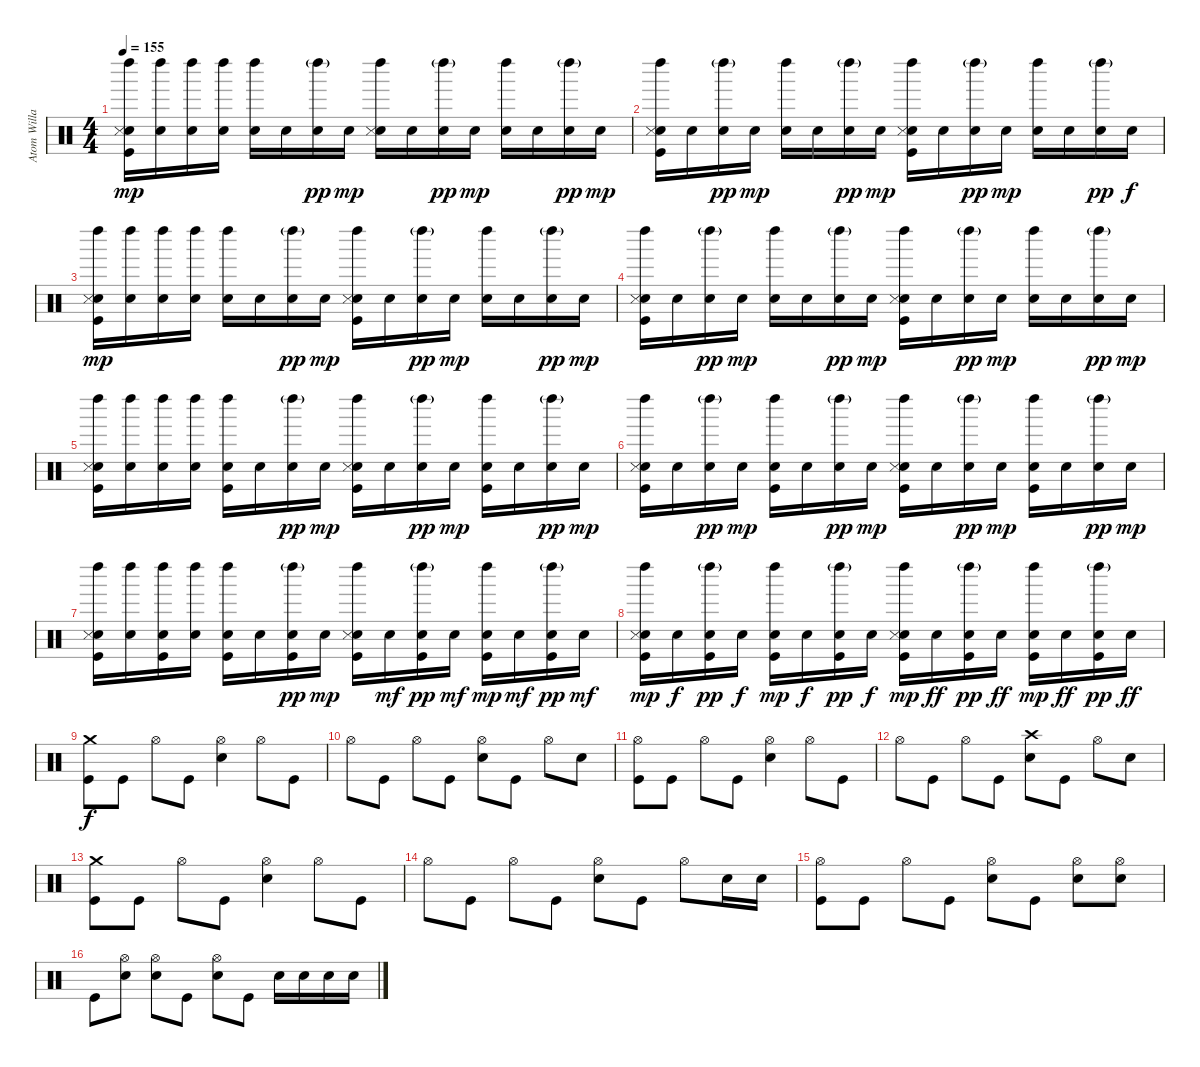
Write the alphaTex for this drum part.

\track ("Atom Willard Drums" "Atom Willa") {instrument percussion}
\staff {score}
\articulation defaults
\ts (4 4)
\tempo 155
\clef neutral
\ks c
("Electric Snare (hit)" "Kick (hit)" "Left Maraca (hit)" "Snare (side stick) 3").16{dy mp} ("Electric Snare (hit)" "Left Maraca (hit)").16 ("Electric Snare (hit)" "Left Maraca (hit)").16 ("Electric Snare (hit)" "Left Maraca (hit)").16 ("Electric Snare (hit)" "Left Maraca (hit)").16 "Electric Snare (hit)".16 ("Electric Snare (hit)" "Left Maraca (hit)"{g}).16{dy pp} "Electric Snare (hit)".16{dy mp} ("Electric Snare (hit)" "Left Maraca (hit)" "Snare (side stick) 3").16 "Electric Snare (hit)".16 ("Electric Snare (hit)" "Left Maraca (hit)"{g}).16{dy pp} "Electric Snare (hit)".16{dy mp} ("Electric Snare (hit)" "Left Maraca (hit)").16 "Electric Snare (hit)".16 ("Electric Snare (hit)" "Left Maraca (hit)"{g}).16{dy pp} "Electric Snare (hit)".16{dy mp} |
("Electric Snare (hit)" "Kick (hit)" "Left Maraca (hit)" "Snare (side stick) 3").16 "Electric Snare (hit)".16 ("Electric Snare (hit)" "Left Maraca (hit)"{g}).16{dy pp} "Electric Snare (hit)".16{dy mp} ("Electric Snare (hit)" "Left Maraca (hit)").16 "Electric Snare (hit)".16 ("Electric Snare (hit)" "Left Maraca (hit)"{g}).16{dy pp} "Electric Snare (hit)".16{dy mp} ("Electric Snare (hit)" "Kick (hit)" "Left Maraca (hit)" "Snare (side stick) 3").16 "Electric Snare (hit)".16 ("Electric Snare (hit)" "Left Maraca (hit)"{g}).16{dy pp} "Electric Snare (hit)".16{dy mp} ("Electric Snare (hit)" "Left Maraca (hit)").16 "Electric Snare (hit)".16 ("Electric Snare (hit)" "Left Maraca (hit)"{g}).16{dy pp} "Electric Snare (hit)".16{dy f} |
("Electric Snare (hit)" "Kick (hit)" "Left Maraca (hit)" "Snare (side stick) 3").16{dy mp} ("Electric Snare (hit)" "Left Maraca (hit)").16 ("Electric Snare (hit)" "Left Maraca (hit)").16 ("Electric Snare (hit)" "Left Maraca (hit)").16 ("Electric Snare (hit)" "Left Maraca (hit)").16 "Electric Snare (hit)".16 ("Electric Snare (hit)" "Left Maraca (hit)"{g}).16{dy pp} "Electric Snare (hit)".16{dy mp} ("Electric Snare (hit)" "Kick (hit)" "Left Maraca (hit)" "Snare (side stick) 3").16 "Electric Snare (hit)".16 ("Electric Snare (hit)" "Left Maraca (hit)"{g}).16{dy pp} "Electric Snare (hit)".16{dy mp} ("Electric Snare (hit)" "Left Maraca (hit)").16 "Electric Snare (hit)".16 ("Electric Snare (hit)" "Left Maraca (hit)"{g}).16{dy pp} "Electric Snare (hit)".16{dy mp} |
("Electric Snare (hit)" "Kick (hit)" "Left Maraca (hit)" "Snare (side stick) 3").16 "Electric Snare (hit)".16 ("Electric Snare (hit)" "Left Maraca (hit)"{g}).16{dy pp} "Electric Snare (hit)".16{dy mp} ("Electric Snare (hit)" "Left Maraca (hit)").16 "Electric Snare (hit)".16 ("Electric Snare (hit)" "Left Maraca (hit)"{g}).16{dy pp} "Electric Snare (hit)".16{dy mp} ("Electric Snare (hit)" "Kick (hit)" "Left Maraca (hit)" "Snare (side stick) 3").16 "Electric Snare (hit)".16 ("Electric Snare (hit)" "Left Maraca (hit)"{g}).16{dy pp} "Electric Snare (hit)".16{dy mp} ("Electric Snare (hit)" "Left Maraca (hit)").16 "Electric Snare (hit)".16 ("Electric Snare (hit)" "Left Maraca (hit)"{g}).16{dy pp} "Electric Snare (hit)".16{dy mp} |
("Electric Snare (hit)" "Kick (hit)" "Left Maraca (hit)" "Snare (side stick) 3").16 ("Electric Snare (hit)" "Left Maraca (hit)").16 ("Electric Snare (hit)" "Left Maraca (hit)").16 ("Electric Snare (hit)" "Left Maraca (hit)").16 ("Electric Snare (hit)" "Kick (hit)" "Left Maraca (hit)").16 "Electric Snare (hit)".16 ("Electric Snare (hit)" "Left Maraca (hit)"{g}).16{dy pp} "Electric Snare (hit)".16{dy mp} ("Electric Snare (hit)" "Kick (hit)" "Left Maraca (hit)" "Snare (side stick) 3").16 "Electric Snare (hit)".16 ("Electric Snare (hit)" "Left Maraca (hit)"{g}).16{dy pp} "Electric Snare (hit)".16{dy mp} ("Electric Snare (hit)" "Kick (hit)" "Left Maraca (hit)").16 "Electric Snare (hit)".16 ("Electric Snare (hit)" "Left Maraca (hit)"{g}).16{dy pp} "Electric Snare (hit)".16{dy mp} |
("Electric Snare (hit)" "Kick (hit)" "Left Maraca (hit)" "Snare (side stick) 3").16 "Electric Snare (hit)".16 ("Electric Snare (hit)" "Left Maraca (hit)"{g}).16{dy pp} "Electric Snare (hit)".16{dy mp} ("Electric Snare (hit)" "Kick (hit)" "Left Maraca (hit)").16 "Electric Snare (hit)".16 ("Electric Snare (hit)" "Left Maraca (hit)"{g}).16{dy pp} "Electric Snare (hit)".16{dy mp} ("Electric Snare (hit)" "Kick (hit)" "Left Maraca (hit)" "Snare (side stick) 3").16 "Electric Snare (hit)".16 ("Electric Snare (hit)" "Left Maraca (hit)"{g}).16{dy pp} "Electric Snare (hit)".16{dy mp} ("Electric Snare (hit)" "Kick (hit)" "Left Maraca (hit)").16 "Electric Snare (hit)".16 ("Electric Snare (hit)" "Left Maraca (hit)"{g}).16{dy pp} "Electric Snare (hit)".16{dy mp} |
("Electric Snare (hit)" "Kick (hit)" "Left Maraca (hit)" "Snare (side stick) 3").16 ("Electric Snare (hit)" "Left Maraca (hit)").16 ("Electric Snare (hit)" "Kick (hit)" "Left Maraca (hit)").16 ("Electric Snare (hit)" "Left Maraca (hit)").16 ("Electric Snare (hit)" "Kick (hit)" "Left Maraca (hit)").16 "Electric Snare (hit)".16 ("Electric Snare (hit)" "Kick (hit)" "Left Maraca (hit)"{g}).16{dy pp} "Electric Snare (hit)".16{dy mp} ("Electric Snare (hit)" "Kick (hit)" "Left Maraca (hit)" "Snare (side stick) 3").16 "Electric Snare (hit)".16{dy mf} ("Electric Snare (hit)" "Kick (hit)" "Left Maraca (hit)"{g}).16{dy pp} "Electric Snare (hit)".16{dy mf} ("Electric Snare (hit)" "Kick (hit)" "Left Maraca (hit)").16{dy mp} "Electric Snare (hit)".16{dy mf} ("Electric Snare (hit)" "Kick (hit)" "Left Maraca (hit)"{g}).16{dy pp} "Electric Snare (hit)".16{dy mf} |
("Electric Snare (hit)" "Kick (hit)" "Left Maraca (hit)" "Snare (side stick) 3").16{dy mp} "Electric Snare (hit)".16{dy f} ("Electric Snare (hit)" "Kick (hit)" "Left Maraca (hit)"{g}).16{dy pp} "Electric Snare (hit)".16{dy f} ("Electric Snare (hit)" "Kick (hit)" "Left Maraca (hit)").16{dy mp} "Electric Snare (hit)".16{dy f} ("Electric Snare (hit)" "Kick (hit)" "Left Maraca (hit)"{g}).16{dy pp} "Electric Snare (hit)".16{dy f} ("Electric Snare (hit)" "Kick (hit)" "Left Maraca (hit)" "Snare (side stick) 3").16{dy mp} "Electric Snare (hit)".16{dy ff} ("Electric Snare (hit)" "Kick (hit)" "Left Maraca (hit)"{g}).16{dy pp} "Electric Snare (hit)".16{dy ff} ("Electric Snare (hit)" "Kick (hit)" "Left Maraca (hit)").16{dy mp} "Electric Snare (hit)".16{dy ff} ("Electric Snare (hit)" "Kick (hit)" "Left Maraca (hit)"{g}).16{dy pp} "Electric Snare (hit)".16{dy ff} |
("Crash medium (hit)" "Kick (hit)").8{dy f} "Kick (hit)".8 "Hi-Hat (open)".8 "Kick (hit)".8 ("Electric Snare (hit)" "Hi-Hat (open)").4 "Hi-Hat (open)".8 "Kick (hit)".8 |
"Hi-Hat (open)".8 "Kick (hit)".8 "Hi-Hat (open)".8 "Kick (hit)".8 ("Electric Snare (hit)" "Hi-Hat (open)").8 "Kick (hit)".8 "Hi-Hat (open)".8 "Electric Snare (hit)".8 |
("Kick (hit)" "Hi-Hat (open)").8 "Kick (hit)".8 "Hi-Hat (open)".8 "Kick (hit)".8 ("Electric Snare (hit)" "Hi-Hat (open)").4 "Hi-Hat (open)".8 "Kick (hit)".8 |
"Hi-Hat (open)".8 "Kick (hit)".8 "Hi-Hat (open)".8 "Kick (hit)".8 ("Electric Snare (hit)" "Crash high (hit)").8 "Kick (hit)".8 "Hi-Hat (open)".8 "Electric Snare (hit)".8 |
("Crash medium (hit)" "Kick (hit)").8 "Kick (hit)".8 "Hi-Hat (open)".8 "Kick (hit)".8 ("Electric Snare (hit)" "Hi-Hat (open)").4 "Hi-Hat (open)".8 "Kick (hit)".8 |
"Hi-Hat (open)".8 "Kick (hit)".8 "Hi-Hat (open)".8 "Kick (hit)".8 ("Electric Snare (hit)" "Hi-Hat (open)").8 "Kick (hit)".8 "Hi-Hat (open)".8 "Electric Snare (hit)".16 "Electric Snare (hit)".16 |
("Kick (hit)" "Hi-Hat (open)").8 "Kick (hit)".8 "Hi-Hat (open)".8 "Kick (hit)".8 ("Electric Snare (hit)" "Hi-Hat (open)").8 "Kick (hit)".8 ("Electric Snare (hit)" "Hi-Hat (open)").8 ("Electric Snare (hit)" "Hi-Hat (open)").8 |
"Kick (hit)".8 ("Electric Snare (hit)" "Hi-Hat (open)").8 ("Electric Snare (hit)" "Hi-Hat (open)").8 "Kick (hit)".8 ("Electric Snare (hit)" "Hi-Hat (open)").8 "Kick (hit)".8 "Electric Snare (hit)".16 "Electric Snare (hit)".16 "Electric Snare (hit)".16 "Electric Snare (hit)".16
